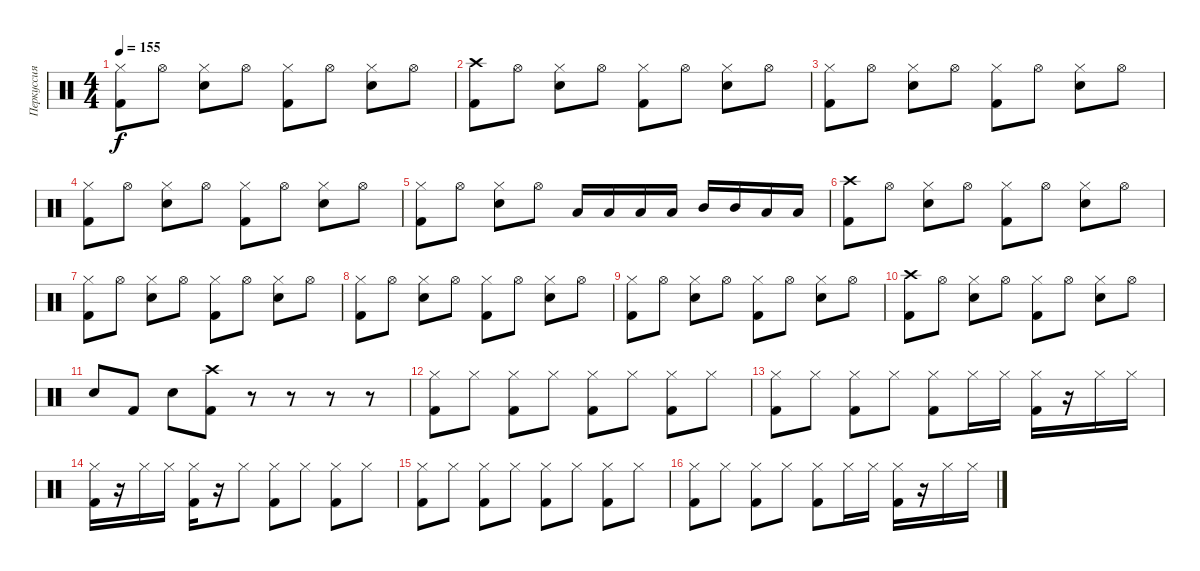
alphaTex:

\track ("Перкуссия" "Перкуссия") {instrument percussion}
\staff {score}
\articulation defaults
\ts (4 4)
\tempo 155
\clef neutral
\ks c
("Hi-Hat (closed)" "Kick (hit) 2").8{dy f} "Hi-Hat (open)".8 ("Hi-Hat (closed)" "Snare (hit) 2").8 "Hi-Hat (open)".8 ("Hi-Hat (closed)" "Kick (hit) 2").8 "Hi-Hat (open)".8 ("Hi-Hat (closed)" "Snare (hit) 2").8 "Hi-Hat (open)".8 |
("Crash high (hit)" "Kick (hit) 2").8 "Hi-Hat (open)".8 ("Hi-Hat (closed)" "Snare (hit) 2").8 "Hi-Hat (open)".8 ("Hi-Hat (closed)" "Kick (hit) 2").8 "Hi-Hat (open)".8 ("Hi-Hat (closed)" "Snare (hit) 2").8 "Hi-Hat (open)".8 |
("Hi-Hat (closed)" "Kick (hit) 2").8 "Hi-Hat (open)".8 ("Hi-Hat (closed)" "Snare (hit) 2").8 "Hi-Hat (open)".8 ("Hi-Hat (closed)" "Kick (hit) 2").8 "Hi-Hat (open)".8 ("Hi-Hat (closed)" "Snare (hit) 2").8 "Hi-Hat (open)".8 |
("Hi-Hat (closed)" "Kick (hit) 2").8 "Hi-Hat (open)".8 ("Hi-Hat (closed)" "Snare (hit) 2").8 "Hi-Hat (open)".8 ("Hi-Hat (closed)" "Kick (hit) 2").8 "Hi-Hat (open)".8 ("Hi-Hat (closed)" "Snare (hit) 2").8 "Hi-Hat (open)".8 |
("Hi-Hat (closed)" "Kick (hit) 2").8 "Hi-Hat (open)".8 ("Hi-Hat (closed)" "Snare (hit) 2").8 "Hi-Hat (open)".8 "Low Tom (hit)".16 "Low Tom (hit)".16 "Low Tom (hit)".16 "Low Tom (hit)".16 "Mid Tom (hit)".16 "Mid Tom (hit)".16 "Low Tom (hit)".16 "Low Tom (hit)".16 |
("Crash high (hit)" "Kick (hit) 2").8 "Hi-Hat (open)".8 ("Hi-Hat (closed)" "Snare (hit) 2").8 "Hi-Hat (open)".8 ("Hi-Hat (closed)" "Kick (hit) 2").8 "Hi-Hat (open)".8 ("Hi-Hat (closed)" "Snare (hit) 2").8 "Hi-Hat (open)".8 |
("Hi-Hat (closed)" "Kick (hit) 2").8 "Hi-Hat (open)".8 ("Hi-Hat (closed)" "Snare (hit) 2").8 "Hi-Hat (open)".8 ("Hi-Hat (closed)" "Kick (hit) 2").8 "Hi-Hat (open)".8 ("Hi-Hat (closed)" "Snare (hit) 2").8 "Hi-Hat (open)".8 |
("Hi-Hat (closed)" "Kick (hit) 2").8 "Hi-Hat (open)".8 ("Hi-Hat (closed)" "Snare (hit) 2").8 "Hi-Hat (open)".8 ("Hi-Hat (closed)" "Kick (hit) 2").8 "Hi-Hat (open)".8 ("Hi-Hat (closed)" "Snare (hit) 2").8 "Hi-Hat (open)".8 |
("Hi-Hat (closed)" "Kick (hit) 2").8 "Hi-Hat (open)".8 ("Hi-Hat (closed)" "Snare (hit) 2").8 "Hi-Hat (open)".8 ("Hi-Hat (closed)" "Kick (hit) 2").8 "Hi-Hat (open)".8 ("Hi-Hat (closed)" "Snare (hit) 2").8 "Hi-Hat (open)".8 |
("Crash high (hit)" "Kick (hit) 2").8 "Hi-Hat (open)".8 ("Hi-Hat (closed)" "Snare (hit) 2").8 "Hi-Hat (open)".8 ("Hi-Hat (closed)" "Kick (hit) 2").8 "Hi-Hat (open)".8 ("Hi-Hat (closed)" "Snare (hit) 2").8 "Hi-Hat (open)".8 |
"Snare (hit) 2".8 "Kick (hit) 2".8 "Snare (hit) 2".8 ("Crash high (hit)" "Kick (hit) 2").8 r.8 r.8 r.8 r.8 |
("Hi-Hat (closed)" "Kick (hit) 2").8 "Hi-Hat (closed)".8 ("Hi-Hat (closed)" "Kick (hit) 2").8 "Hi-Hat (closed)".8 ("Hi-Hat (closed)" "Kick (hit) 2").8 "Hi-Hat (closed)".8 ("Hi-Hat (closed)" "Kick (hit) 2").8 "Hi-Hat (closed)".8 |
("Hi-Hat (closed)" "Kick (hit) 2").8 "Hi-Hat (closed)".8 ("Hi-Hat (closed)" "Kick (hit) 2").8 "Hi-Hat (closed)".8 ("Hi-Hat (closed)" "Kick (hit) 2").8 "Hi-Hat (closed)".16 "Hi-Hat (closed)".16 ("Hi-Hat (closed)" "Kick (hit) 2").16 r.16 "Hi-Hat (closed)".16 "Hi-Hat (closed)".16 |
("Hi-Hat (closed)" "Kick (hit) 2").16 r.16 "Hi-Hat (closed)".16 "Hi-Hat (closed)".16 ("Hi-Hat (closed)" "Kick (hit) 2").16 r.16 "Hi-Hat (closed)".8 ("Hi-Hat (closed)" "Kick (hit) 2").8 "Hi-Hat (closed)".8 ("Hi-Hat (closed)" "Kick (hit) 2").8 "Hi-Hat (closed)".8 |
("Hi-Hat (closed)" "Kick (hit) 2").8 "Hi-Hat (closed)".8 ("Hi-Hat (closed)" "Kick (hit) 2").8 "Hi-Hat (closed)".8 ("Hi-Hat (closed)" "Kick (hit) 2").8 "Hi-Hat (closed)".8 ("Hi-Hat (closed)" "Kick (hit) 2").8 "Hi-Hat (closed)".8 |
("Hi-Hat (closed)" "Kick (hit) 2").8 "Hi-Hat (closed)".8 ("Hi-Hat (closed)" "Kick (hit) 2").8 "Hi-Hat (closed)".8 ("Hi-Hat (closed)" "Kick (hit) 2").8 "Hi-Hat (closed)".16 "Hi-Hat (closed)".16 ("Hi-Hat (closed)" "Kick (hit) 2").16 r.16 "Hi-Hat (closed)".16 "Hi-Hat (closed)".16
